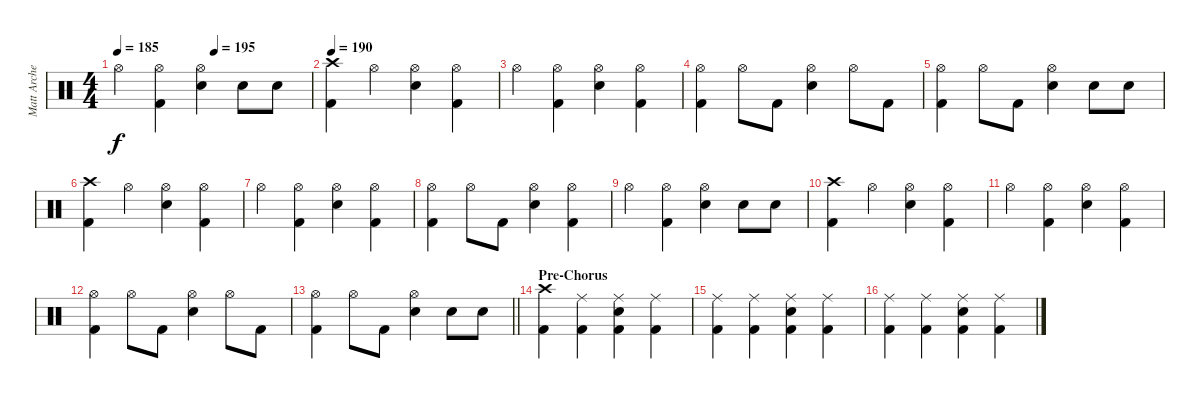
\track ("Matt Archer" "Matt Arche") {instrument percussion}
\staff {score}
\articulation defaults
\ts (4 4)
\tempo 185
\tempo (195 0.5)
\clef neutral
\ks c "Hi-Hat (open)".4{dy f}
("Hi-Hat (open)" "Kick (hit) 2").4 ("Hi-Hat (open)" "Snare (hit) 2").4 "Snare (hit) 2".8 "Snare (hit) 2".8 |
\tempo 190
("Crash high (hit)" "Kick (hit) 2").4 "Hi-Hat (open)".4 ("Hi-Hat (open)" "Snare (hit) 2").4 ("Hi-Hat (open)" "Kick (hit) 2").4 |
"Hi-Hat (open)".4 ("Hi-Hat (open)" "Kick (hit) 2").4 ("Hi-Hat (open)" "Snare (hit) 2").4 ("Hi-Hat (open)" "Kick (hit) 2").4 |
("Hi-Hat (open)" "Kick (hit) 2").4 "Hi-Hat (open)".8 "Kick (hit) 2".8 ("Hi-Hat (open)" "Snare (hit) 2").4 "Hi-Hat (open)".8 "Kick (hit) 2".8 |
("Hi-Hat (open)" "Kick (hit) 2").4 "Hi-Hat (open)".8 "Kick (hit) 2".8 ("Hi-Hat (open)" "Snare (hit) 2").4 "Snare (hit) 2".8 "Snare (hit) 2".8 |
("Crash high (hit)" "Kick (hit) 2").4 "Hi-Hat (open)".4 ("Hi-Hat (open)" "Snare (hit) 2").4 ("Hi-Hat (open)" "Kick (hit) 2").4 |
"Hi-Hat (open)".4 ("Hi-Hat (open)" "Kick (hit) 2").4 ("Hi-Hat (open)" "Snare (hit) 2").4 ("Hi-Hat (open)" "Kick (hit) 2").4 |
("Hi-Hat (open)" "Kick (hit) 2").4 "Hi-Hat (open)".8 "Kick (hit) 2".8 ("Hi-Hat (open)" "Snare (hit) 2").4 ("Hi-Hat (open)" "Kick (hit) 2").4 |
"Hi-Hat (open)".4 ("Hi-Hat (open)" "Kick (hit) 2").4 ("Hi-Hat (open)" "Snare (hit) 2").4 "Snare (hit) 2".8 "Snare (hit) 2".8 |
("Crash high (hit)" "Kick (hit) 2").4 "Hi-Hat (open)".4 ("Hi-Hat (open)" "Snare (hit) 2").4 ("Hi-Hat (open)" "Kick (hit) 2").4 |
"Hi-Hat (open)".4 ("Hi-Hat (open)" "Kick (hit) 2").4 ("Hi-Hat (open)" "Snare (hit) 2").4 ("Hi-Hat (open)" "Kick (hit) 2").4 |
("Hi-Hat (open)" "Kick (hit) 2").4 "Hi-Hat (open)".8 "Kick (hit) 2".8 ("Hi-Hat (open)" "Snare (hit) 2").4 "Hi-Hat (open)".8 "Kick (hit) 2".8 |
\barLineRight lightlight
("Hi-Hat (open)" "Kick (hit) 2").4 "Hi-Hat (open)".8 "Kick (hit) 2".8 ("Hi-Hat (open)" "Snare (hit) 2").4 "Snare (hit) 2".8 "Snare (hit) 2".8 |
\section ("" "Pre-Chorus")
("Crash high (hit)" "Kick (hit) 2").4 ("Ride (middle)" "Kick (hit) 2").4 ("Ride (middle)" "Snare (hit) 2" "Kick (hit) 2").4 ("Ride (middle)" "Kick (hit) 2").4 |
("Ride (middle)" "Kick (hit) 2").4 ("Ride (middle)" "Kick (hit) 2").4 ("Ride (middle)" "Snare (hit) 2" "Kick (hit) 2").4 ("Ride (middle)" "Kick (hit) 2").4 |
("Ride (middle)" "Kick (hit) 2").4 ("Ride (middle)" "Kick (hit) 2").4 ("Ride (middle)" "Snare (hit) 2" "Kick (hit) 2").4 ("Ride (middle)" "Kick (hit) 2").4
